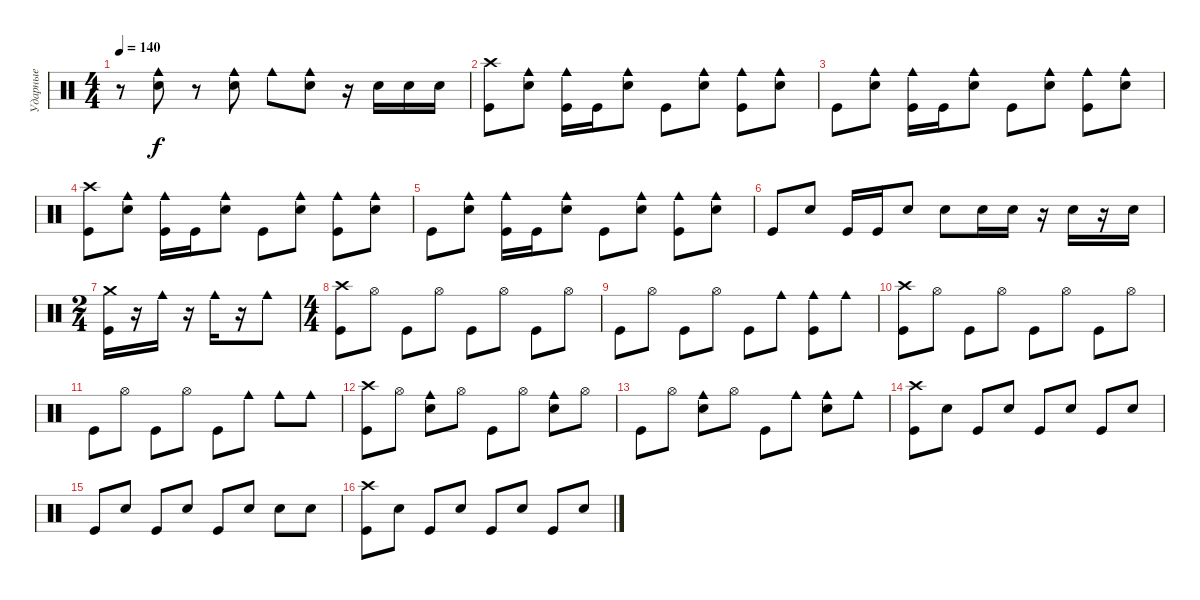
\track ("Ударные" "Ударные") {instrument percussion}
\staff {score}
\articulation defaults
\ts (4 4)
\tempo 140
\clef neutral
\ks c
r.8{dy f} ("Electric Snare (hit)" "Cowbell medium (hit)").8 r.8 ("Electric Snare (hit)" "Cowbell medium (hit)").8 "Cowbell medium (hit)".8 ("Cowbell medium (hit)" "Electric Snare (hit)").8 r.16 "Electric Snare (hit)".16 "Electric Snare (hit)".16 "Electric Snare (hit)".16 |
("Crash high (hit)" "Kick (hit)").8 ("Cowbell medium (hit)" "Electric Snare (hit)").8 ("Cowbell medium (hit)" "Kick (hit)").16 "Kick (hit)".16 ("Cowbell medium (hit)" "Electric Snare (hit)").8 "Kick (hit)".8 ("Cowbell medium (hit)" "Electric Snare (hit)").8 ("Cowbell medium (hit)" "Kick (hit)").8 ("Cowbell medium (hit)" "Electric Snare (hit)").8 |
"Kick (hit)".8 ("Cowbell medium (hit)" "Electric Snare (hit)").8 ("Cowbell medium (hit)" "Kick (hit)").16 "Kick (hit)".16 ("Cowbell medium (hit)" "Electric Snare (hit)").8 "Kick (hit)".8 ("Cowbell medium (hit)" "Electric Snare (hit)").8 ("Cowbell medium (hit)" "Kick (hit)").8 ("Cowbell medium (hit)" "Electric Snare (hit)").8 |
("Crash high (hit)" "Kick (hit)").8 ("Cowbell medium (hit)" "Electric Snare (hit)").8 ("Cowbell medium (hit)" "Kick (hit)").16 "Kick (hit)".16 ("Cowbell medium (hit)" "Electric Snare (hit)").8 "Kick (hit)".8 ("Cowbell medium (hit)" "Electric Snare (hit)").8 ("Cowbell medium (hit)" "Kick (hit)").8 ("Cowbell medium (hit)" "Electric Snare (hit)").8 |
"Kick (hit)".8 ("Cowbell medium (hit)" "Electric Snare (hit)").8 ("Cowbell medium (hit)" "Kick (hit)").16 "Kick (hit)".16 ("Cowbell medium (hit)" "Electric Snare (hit)").8 "Kick (hit)".8 ("Cowbell medium (hit)" "Electric Snare (hit)").8 ("Cowbell medium (hit)" "Kick (hit)").8 ("Cowbell medium (hit)" "Electric Snare (hit)").8 |
"Kick (hit)".8 "Electric Snare (hit)".8 "Kick (hit)".16 "Kick (hit)".16 "Electric Snare (hit)".8 "Electric Snare (hit)".8 "Electric Snare (hit)".16 "Electric Snare (hit)".16 r.16 "Electric Snare (hit)".16 r.16 "Electric Snare (hit)".16 |
\ts (2 4)
("Crash medium (hit)" "Kick (hit)").16 r.16 "Cowbell medium (hit)".16 r.16 "Cowbell medium (hit)".16 r.16 "Cowbell medium (hit)".8 |
\ts (4 4)
("Crash high (hit)" "Kick (hit)").8 "Hi-Hat (open)".8 "Kick (hit)".8 "Hi-Hat (open)".8 "Kick (hit)".8 "Hi-Hat (open)".8 "Kick (hit)".8 "Hi-Hat (open)".8 |
"Kick (hit)".8 "Hi-Hat (open)".8 "Kick (hit)".8 "Hi-Hat (open)".8 "Kick (hit)".8 "Cowbell medium (hit)".8 ("Cowbell medium (hit)" "Kick (hit)").8 "Cowbell medium (hit)".8 |
("Crash high (hit)" "Kick (hit)").8 "Hi-Hat (open)".8 "Kick (hit)".8 "Hi-Hat (open)".8 "Kick (hit)".8 "Hi-Hat (open)".8 "Kick (hit)".8 "Hi-Hat (open)".8 |
"Kick (hit)".8 "Hi-Hat (open)".8 "Kick (hit)".8 "Hi-Hat (open)".8 "Kick (hit)".8 "Cowbell medium (hit)".8 "Cowbell medium (hit)".8 "Cowbell medium (hit)".8 |
("Crash high (hit)" "Kick (hit)").8 "Hi-Hat (open)".8 ("Cowbell medium (hit)" "Electric Snare (hit)").8 "Hi-Hat (open)".8 "Kick (hit)".8 "Hi-Hat (open)".8 ("Cowbell medium (hit)" "Electric Snare (hit)").8 "Hi-Hat (open)".8 |
"Kick (hit)".8 "Hi-Hat (open)".8 ("Cowbell medium (hit)" "Electric Snare (hit)").8 "Hi-Hat (open)".8 "Kick (hit)".8 "Cowbell medium (hit)".8 ("Electric Snare (hit)" "Cowbell medium (hit)").8 "Cowbell medium (hit)".8 |
("Crash high (hit)" "Kick (hit)").8 "Electric Snare (hit)".8 "Kick (hit)".8 "Electric Snare (hit)".8 "Kick (hit)".8 "Electric Snare (hit)".8 "Kick (hit)".8 "Electric Snare (hit)".8 |
"Kick (hit)".8 "Electric Snare (hit)".8 "Kick (hit)".8 "Electric Snare (hit)".8 "Kick (hit)".8 "Electric Snare (hit)".8 "Electric Snare (hit)".8 "Electric Snare (hit)".8 |
("Crash high (hit)" "Kick (hit)").8 "Electric Snare (hit)".8 "Kick (hit)".8 "Electric Snare (hit)".8 "Kick (hit)".8 "Electric Snare (hit)".8 "Kick (hit)".8 "Electric Snare (hit)".8
